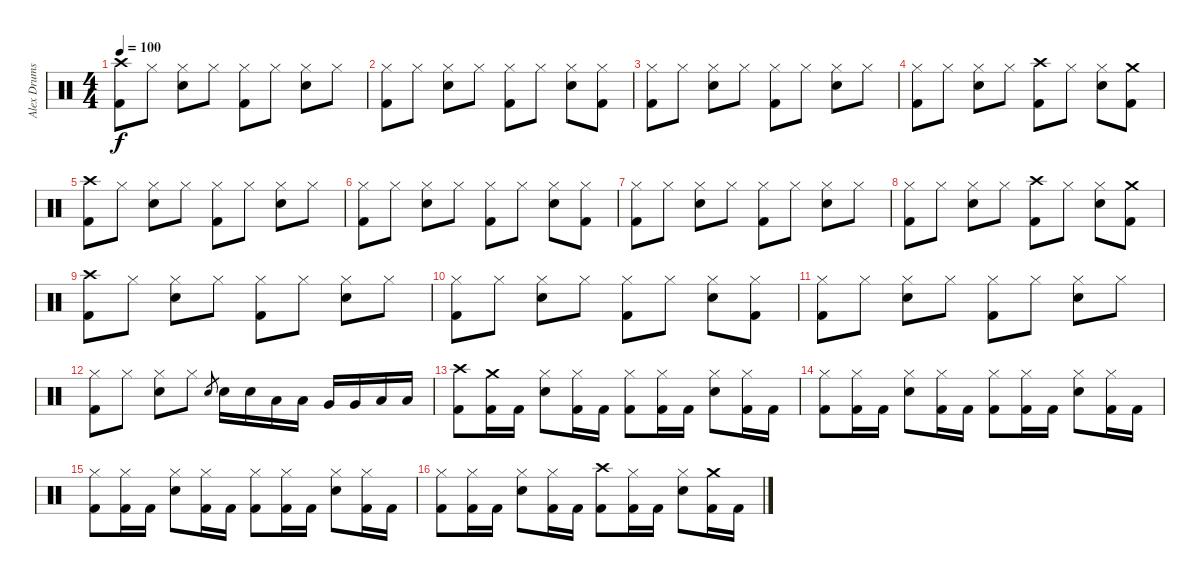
\track ("Alex Drums" "Alex Drums") {instrument percussion}
\staff {score}
\articulation defaults
\ts (4 4)
\tempo 100
\clef neutral
\ks c
("Crash high (hit)" "Kick (hit) 2").8{dy f} "Hi-Hat (closed)".8 ("Hi-Hat (closed)" "Electric Snare (hit)").8 "Hi-Hat (closed)".8 ("Hi-Hat (closed)" "Kick (hit) 2").8 "Hi-Hat (closed)".8 ("Hi-Hat (closed)" "Electric Snare (hit)").8 "Hi-Hat (closed)".8 |
("Hi-Hat (closed)" "Kick (hit) 2").8 "Hi-Hat (closed)".8 ("Hi-Hat (closed)" "Electric Snare (hit)").8 "Hi-Hat (closed)".8 ("Hi-Hat (closed)" "Kick (hit) 2").8 "Hi-Hat (closed)".8 ("Hi-Hat (closed)" "Electric Snare (hit)").8 ("Hi-Hat (closed)" "Kick (hit) 2").8 |
("Hi-Hat (closed)" "Kick (hit) 2").8 "Hi-Hat (closed)".8 ("Hi-Hat (closed)" "Electric Snare (hit)").8 "Hi-Hat (closed)".8 ("Hi-Hat (closed)" "Kick (hit) 2").8 "Hi-Hat (closed)".8 ("Hi-Hat (closed)" "Electric Snare (hit)").8 "Hi-Hat (closed)".8 |
("Hi-Hat (closed)" "Kick (hit) 2").8 "Hi-Hat (closed)".8 ("Hi-Hat (closed)" "Electric Snare (hit)").8 "Hi-Hat (closed)".8 ("Crash high (hit)" "Kick (hit) 2").8 "Hi-Hat (closed)".8 ("Hi-Hat (closed)" "Electric Snare (hit)").8 ("Crash medium (hit)" "Kick (hit) 2").8 |
("Crash high (hit)" "Kick (hit) 2").8 "Hi-Hat (closed)".8 ("Hi-Hat (closed)" "Electric Snare (hit)").8 "Hi-Hat (closed)".8 ("Hi-Hat (closed)" "Kick (hit) 2").8 "Hi-Hat (closed)".8 ("Hi-Hat (closed)" "Electric Snare (hit)").8 "Hi-Hat (closed)".8 |
("Hi-Hat (closed)" "Kick (hit) 2").8 "Hi-Hat (closed)".8 ("Hi-Hat (closed)" "Electric Snare (hit)").8 "Hi-Hat (closed)".8 ("Hi-Hat (closed)" "Kick (hit) 2").8 "Hi-Hat (closed)".8 ("Hi-Hat (closed)" "Electric Snare (hit)").8 ("Hi-Hat (closed)" "Kick (hit) 2").8 |
("Hi-Hat (closed)" "Kick (hit) 2").8 "Hi-Hat (closed)".8 ("Hi-Hat (closed)" "Electric Snare (hit)").8 "Hi-Hat (closed)".8 ("Hi-Hat (closed)" "Kick (hit) 2").8 "Hi-Hat (closed)".8 ("Hi-Hat (closed)" "Electric Snare (hit)").8 "Hi-Hat (closed)".8 |
("Hi-Hat (closed)" "Kick (hit) 2").8 "Hi-Hat (closed)".8 ("Hi-Hat (closed)" "Electric Snare (hit)").8 "Hi-Hat (closed)".8 ("Crash high (hit)" "Kick (hit) 2").8 "Hi-Hat (closed)".8 ("Hi-Hat (closed)" "Electric Snare (hit)").8 ("Crash medium (hit)" "Kick (hit) 2").8 |
("Crash high (hit)" "Kick (hit) 2").8 "Hi-Hat (closed)".8 ("Hi-Hat (closed)" "Electric Snare (hit)").8 "Hi-Hat (closed)".8 ("Hi-Hat (closed)" "Kick (hit) 2").8 "Hi-Hat (closed)".8 ("Hi-Hat (closed)" "Electric Snare (hit)").8 "Hi-Hat (closed)".8 |
("Hi-Hat (closed)" "Kick (hit) 2").8 "Hi-Hat (closed)".8 ("Hi-Hat (closed)" "Electric Snare (hit)").8 "Hi-Hat (closed)".8 ("Hi-Hat (closed)" "Kick (hit) 2").8 "Hi-Hat (closed)".8 ("Hi-Hat (closed)" "Electric Snare (hit)").8 ("Hi-Hat (closed)" "Kick (hit) 2").8 |
("Hi-Hat (closed)" "Kick (hit) 2").8 "Hi-Hat (closed)".8 ("Hi-Hat (closed)" "Electric Snare (hit)").8 "Hi-Hat (closed)".8 ("Hi-Hat (closed)" "Kick (hit) 2").8 "Hi-Hat (closed)".8 ("Hi-Hat (closed)" "Electric Snare (hit)").8 "Hi-Hat (closed)".8 |
("Hi-Hat (closed)" "Kick (hit) 2").8 "Hi-Hat (closed)".8 ("Hi-Hat (closed)" "Electric Snare (hit)").8 "Hi-Hat (closed)".8 "Electric Snare (hit)".8{gr} "Electric Snare (hit)".16 "Electric Snare (hit)".16 "Low Tom (hit)".16 "Low Tom (hit)".16 "Very Low Tom (hit)".16 "Very Low Tom (hit)".16 "Low Floor Tom (hit)".16 "Low Floor Tom (hit)".16 |
("Crash high (hit)" "Kick (hit) 2").8 ("Crash medium (hit)" "Kick (hit) 2").16 "Kick (hit) 2".16 ("Hi-Hat (closed)" "Electric Snare (hit)").8 ("Hi-Hat (closed)" "Kick (hit) 2").16 "Kick (hit) 2".16 ("Hi-Hat (closed)" "Kick (hit) 2").8 ("Hi-Hat (closed)" "Kick (hit) 2").16 "Kick (hit) 2".16 ("Hi-Hat (closed)" "Electric Snare (hit)").8 ("Hi-Hat (closed)" "Kick (hit) 2").16 "Kick (hit) 2".16 |
("Hi-Hat (closed)" "Kick (hit) 2").8 ("Hi-Hat (closed)" "Kick (hit) 2").16 "Kick (hit) 2".16 ("Hi-Hat (closed)" "Electric Snare (hit)").8 ("Hi-Hat (closed)" "Kick (hit) 2").16 "Kick (hit) 2".16 ("Hi-Hat (closed)" "Kick (hit) 2").8 ("Hi-Hat (closed)" "Kick (hit) 2").16 "Kick (hit) 2".16 ("Hi-Hat (closed)" "Electric Snare (hit)").8 ("Hi-Hat (closed)" "Kick (hit) 2").16 "Kick (hit) 2".16 |
("Hi-Hat (closed)" "Kick (hit) 2").8 ("Hi-Hat (closed)" "Kick (hit) 2").16 "Kick (hit) 2".16 ("Hi-Hat (closed)" "Electric Snare (hit)").8 ("Hi-Hat (closed)" "Kick (hit) 2").16 "Kick (hit) 2".16 ("Hi-Hat (closed)" "Kick (hit) 2").8 ("Hi-Hat (closed)" "Kick (hit) 2").16 "Kick (hit) 2".16 ("Hi-Hat (closed)" "Electric Snare (hit)").8 ("Hi-Hat (closed)" "Kick (hit) 2").16 "Kick (hit) 2".16 |
("Hi-Hat (closed)" "Kick (hit) 2").8 ("Hi-Hat (closed)" "Kick (hit) 2").16 "Kick (hit) 2".16 ("Hi-Hat (closed)" "Electric Snare (hit)").8 ("Hi-Hat (closed)" "Kick (hit) 2").16 "Kick (hit) 2".16 ("Crash high (hit)" "Kick (hit) 2").8 ("Hi-Hat (closed)" "Kick (hit) 2").16 "Kick (hit) 2".16 ("Hi-Hat (closed)" "Electric Snare (hit)").8 ("Crash medium (hit)" "Kick (hit) 2").16 "Kick (hit) 2".16
